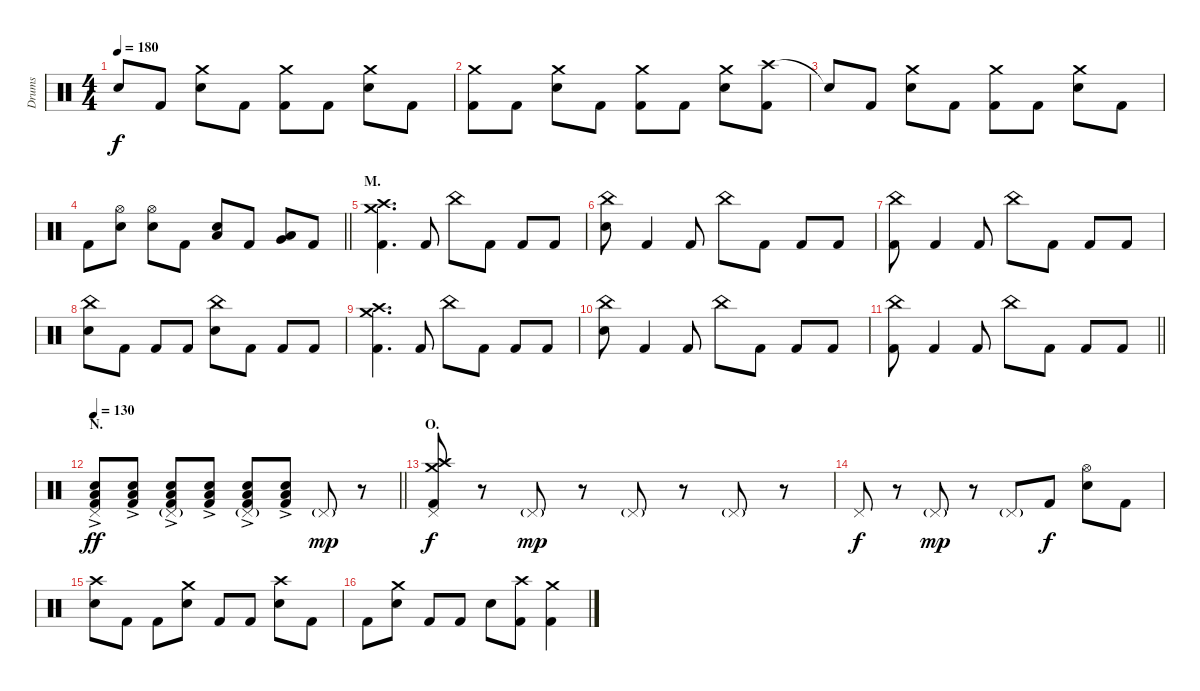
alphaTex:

\track ("Drums" "Drums") {instrument percussion}
\staff {score}
\articulation defaults
\ts (4 4)
\tempo 180
\clef neutral
\ks c "Snare (hit)"{t}.8{dy f} "Kick (hit) 2".8
("Crash medium (hit)" "Electric Snare (hit)").8 "Kick (hit) 2".8 ("Crash medium (hit)" "Kick (hit) 2").8 "Kick (hit) 2".8 ("Crash medium (hit)" "Electric Snare (hit)").8 "Kick (hit) 2".8 |
("Crash medium (hit)" "Kick (hit) 2").8 "Kick (hit) 2".8 ("Crash medium (hit)" "Electric Snare (hit)").8 "Kick (hit) 2".8 ("Crash medium (hit)" "Kick (hit) 2").8 "Kick (hit) 2".8 ("Crash medium (hit)" "Electric Snare (hit)").8 ("Crash high (hit)" "Kick (hit) 2").8 |
"Snare (hit)"{t}.8 "Kick (hit) 2".8 ("Crash medium (hit)" "Electric Snare (hit)").8 "Kick (hit) 2".8 ("Crash medium (hit)" "Kick (hit) 2").8 "Kick (hit) 2".8 ("Crash medium (hit)" "Electric Snare (hit)").8 "Kick (hit) 2".8 |
\barLineRight lightlight "Kick (hit) 2".8
("Hi-Hat (open)" "Electric Snare (hit)").8 ("Hi-Hat (open)" "Electric Snare (hit)").8 "Kick (hit) 2".8 ("Electric Snare (hit)" "Low Floor Tom (hit)").8{bu 120} "Kick (hit) 2".8 ("Very Low Tom (hit)" "Low Floor Tom (hit)").8{bu 120} "Kick (hit) 2".8 |
\section ("" "M.")
("Crash medium (hit)" "Crash high (hit)" "Kick (hit) 2").4{d} "Kick (hit) 2".8 "China (hit)".8 "Kick (hit) 2".8 "Kick (hit) 2".8 "Kick (hit) 2".8 |
("China (hit)" "Electric Snare (hit)").8 "Kick (hit) 2".4 "Kick (hit) 2".8 "China (hit)".8 "Kick (hit) 2".8 "Kick (hit) 2".8 "Kick (hit) 2".8 |
("China (hit)" "Kick (hit) 2").8 "Kick (hit) 2".4 "Kick (hit) 2".8 "China (hit)".8 "Kick (hit) 2".8 "Kick (hit) 2".8 "Kick (hit) 2".8 |
("China (hit)" "Electric Snare (hit)").8 "Kick (hit) 2".8 "Kick (hit) 2".8 "Kick (hit) 2".8 ("China (hit)" "Electric Snare (hit)").8 "Kick (hit) 2".8 "Kick (hit) 2".8 "Kick (hit) 2".8 |
("Crash medium (hit)" "Crash high (hit)" "Kick (hit) 2").4{d} "Kick (hit) 2".8 "China (hit)".8 "Kick (hit) 2".8 "Kick (hit) 2".8 "Kick (hit) 2".8 |
("China (hit)" "Electric Snare (hit)").8 "Kick (hit) 2".4 "Kick (hit) 2".8 "China (hit)".8 "Kick (hit) 2".8 "Kick (hit) 2".8 "Kick (hit) 2".8 |
\barLineRight lightlight
("China (hit)" "Kick (hit) 2").8 "Kick (hit) 2".4 "Kick (hit) 2".8 "China (hit)".8 "Kick (hit) 2".8 "Kick (hit) 2".8 "Kick (hit) 2".8 |
\section ("" "N.")
\tempo 130
\barLineRight lightlight
("Pedal Hi-Hat (hit)" "Electric Snare (hit)" "Low Floor Tom (hit)"{ac} "Kick (hit) 2").8{dy ff} ("Electric Snare (hit)" "Low Floor Tom (hit)"{ac} "Kick (hit) 2").8 ("Pedal Hi-Hat (hit)"{g} "Electric Snare (hit)" "Low Floor Tom (hit)"{ac} "Kick (hit) 2").8 ("Electric Snare (hit)" "Low Floor Tom (hit)"{ac} "Kick (hit) 2").8 ("Pedal Hi-Hat (hit)"{g} "Electric Snare (hit)" "Low Floor Tom (hit)"{ac} "Kick (hit) 2").8 ("Electric Snare (hit)" "Low Floor Tom (hit)"{ac} "Kick (hit) 2").8 "Pedal Hi-Hat (hit)"{g}.8{dy mp} r.8 |
\section ("" "O.")
("Crash medium (hit)" "Crash high (hit)" "Pedal Hi-Hat (hit)" "Kick (hit) 2").8{dy f} r.8 "Pedal Hi-Hat (hit)"{g}.8{dy mp} r.8 "Pedal Hi-Hat (hit)"{g}.8 r.8 "Pedal Hi-Hat (hit)"{g}.8 r.8 |
"Pedal Hi-Hat (hit)".8{dy f} r.8 "Pedal Hi-Hat (hit)"{g}.8{dy mp} r.8 "Pedal Hi-Hat (hit)"{g}.8 "Kick (hit) 2".8{dy f} ("Hi-Hat (open)" "Electric Snare (hit)").8 "Kick (hit) 2".8 |
("Crash high (hit)" "Electric Snare (hit)").8 "Kick (hit) 2".8 "Kick (hit) 2".8 ("Crash medium (hit)" "Electric Snare (hit)").8 "Kick (hit) 2".8 "Kick (hit) 2".8 ("Crash high (hit)" "Electric Snare (hit)").8 "Kick (hit) 2".8 |
"Kick (hit) 2".8 ("Crash medium (hit)" "Electric Snare (hit)").8 "Kick (hit) 2".8 "Kick (hit) 2".8 "Electric Snare (hit)".8 ("Crash high (hit)" "Kick (hit) 2").8 ("Crash medium (hit)" "Kick (hit) 2").4
